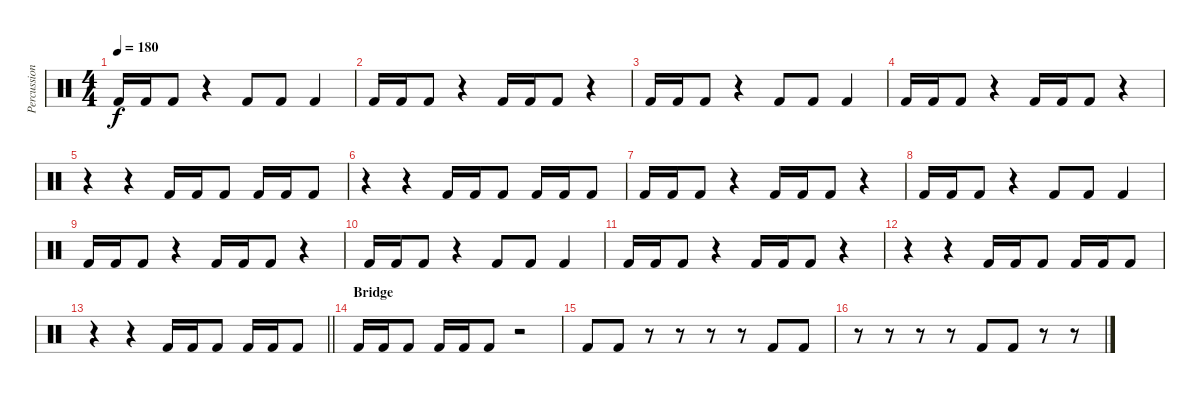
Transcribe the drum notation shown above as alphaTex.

\track ("Percussion" "Percussion") {instrument percussion}
\staff {score}
\articulation defaults
\ts (4 4)
\tempo 180
\clef neutral
\ks c "Kick (hit) 2".16{dy f} "Kick (hit) 2".16 "Kick (hit) 2".8
r.4 "Kick (hit) 2".8 "Kick (hit) 2".8 "Kick (hit) 2".4 |
"Kick (hit) 2".16 "Kick (hit) 2".16 "Kick (hit) 2".8 r.4 "Kick (hit) 2".16 "Kick (hit) 2".16 "Kick (hit) 2".8 r.4 |
"Kick (hit) 2".16 "Kick (hit) 2".16 "Kick (hit) 2".8 r.4 "Kick (hit) 2".8 "Kick (hit) 2".8 "Kick (hit) 2".4 |
"Kick (hit) 2".16 "Kick (hit) 2".16 "Kick (hit) 2".8 r.4 "Kick (hit) 2".16 "Kick (hit) 2".16 "Kick (hit) 2".8 r.4 |
r.4 r.4 "Kick (hit) 2".16 "Kick (hit) 2".16 "Kick (hit) 2".8 "Kick (hit) 2".16 "Kick (hit) 2".16 "Kick (hit) 2".8 |
r.4 r.4 "Kick (hit) 2".16 "Kick (hit) 2".16 "Kick (hit) 2".8 "Kick (hit) 2".16 "Kick (hit) 2".16 "Kick (hit) 2".8 |
"Kick (hit) 2".16 "Kick (hit) 2".16 "Kick (hit) 2".8 r.4 "Kick (hit) 2".16 "Kick (hit) 2".16 "Kick (hit) 2".8 r.4 |
"Kick (hit) 2".16 "Kick (hit) 2".16 "Kick (hit) 2".8 r.4 "Kick (hit) 2".8 "Kick (hit) 2".8 "Kick (hit) 2".4 |
"Kick (hit) 2".16 "Kick (hit) 2".16 "Kick (hit) 2".8 r.4 "Kick (hit) 2".16 "Kick (hit) 2".16 "Kick (hit) 2".8 r.4 |
"Kick (hit) 2".16 "Kick (hit) 2".16 "Kick (hit) 2".8 r.4 "Kick (hit) 2".8 "Kick (hit) 2".8 "Kick (hit) 2".4 |
"Kick (hit) 2".16 "Kick (hit) 2".16 "Kick (hit) 2".8 r.4 "Kick (hit) 2".16 "Kick (hit) 2".16 "Kick (hit) 2".8 r.4 |
r.4 r.4 "Kick (hit) 2".16 "Kick (hit) 2".16 "Kick (hit) 2".8 "Kick (hit) 2".16 "Kick (hit) 2".16 "Kick (hit) 2".8 |
\barLineRight lightlight
r.4 r.4 "Kick (hit) 2".16 "Kick (hit) 2".16 "Kick (hit) 2".8 "Kick (hit) 2".16 "Kick (hit) 2".16 "Kick (hit) 2".8 |
\section ("" "Bridge")
"Kick (hit) 2".16 "Kick (hit) 2".16 "Kick (hit) 2".8 "Kick (hit) 2".16 "Kick (hit) 2".16 "Kick (hit) 2".8 r.2 |
"Kick (hit) 2".8 "Kick (hit) 2".8 r.8 r.8 r.8 r.8 "Kick (hit) 2".8 "Kick (hit) 2".8 |
r.8 r.8 r.8 r.8 "Kick (hit) 2".8 "Kick (hit) 2".8 r.8 r.8
